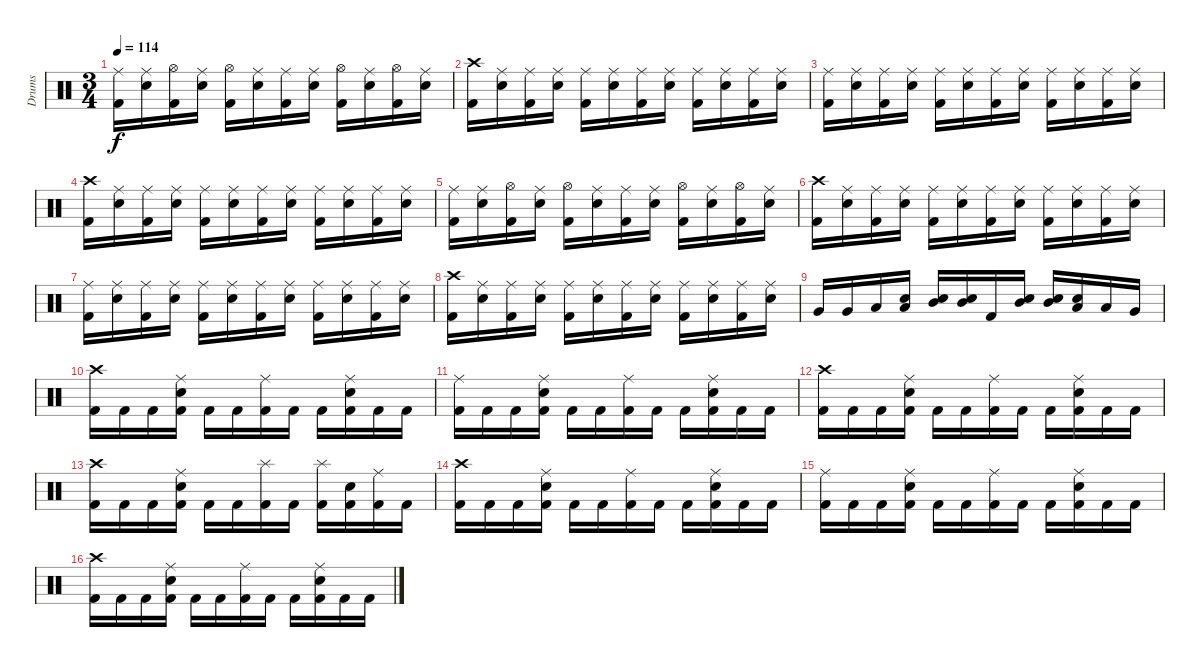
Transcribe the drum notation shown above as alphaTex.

\track ("Drums" "Drums") {instrument percussion}
\staff {score}
\articulation defaults
\ts (3 4)
\tempo 114
\clef neutral
\ks c
("Ride (middle)" "Kick (hit) 2").16{dy f} ("Ride (middle)" "Snare (hit) 2").16 ("Hi-Hat (open)" "Kick (hit) 2").16 ("Ride (middle)" "Snare (hit) 2").16 ("Hi-Hat (open)" "Kick (hit) 2").16 ("Ride (middle)" "Snare (hit) 2").16 ("Ride (middle)" "Kick (hit) 2").16 ("Ride (middle)" "Snare (hit) 2").16 ("Hi-Hat (open)" "Kick (hit) 2").16 ("Ride (middle)" "Snare (hit) 2").16 ("Hi-Hat (open)" "Kick (hit) 2").16 ("Ride (middle)" "Snare (hit) 2").16 |
("Crash high (hit)" "Kick (hit) 2").16 ("Ride (middle)" "Snare (hit) 2").16 ("Ride (middle)" "Kick (hit) 2").16 ("Ride (middle)" "Snare (hit) 2").16 ("Ride (middle)" "Kick (hit) 2").16 ("Ride (middle)" "Snare (hit) 2").16 ("Ride (middle)" "Kick (hit) 2").16 ("Ride (middle)" "Snare (hit) 2").16 ("Ride (middle)" "Kick (hit) 2").16 ("Ride (middle)" "Snare (hit) 2").16 ("Ride (middle)" "Kick (hit) 2").16 ("Ride (middle)" "Snare (hit) 2").16 |
("Ride (middle)" "Kick (hit) 2").16 ("Ride (middle)" "Snare (hit) 2").16 ("Ride (middle)" "Kick (hit) 2").16 ("Ride (middle)" "Snare (hit) 2").16 ("Ride (middle)" "Kick (hit) 2").16 ("Ride (middle)" "Snare (hit) 2").16 ("Ride (middle)" "Kick (hit) 2").16 ("Ride (middle)" "Snare (hit) 2").16 ("Ride (middle)" "Kick (hit) 2").16 ("Ride (middle)" "Snare (hit) 2").16 ("Ride (middle)" "Kick (hit) 2").16 ("Ride (middle)" "Snare (hit) 2").16 |
("Crash high (hit)" "Kick (hit) 2").16 ("Ride (middle)" "Snare (hit) 2").16 ("Ride (middle)" "Kick (hit) 2").16 ("Ride (middle)" "Snare (hit) 2").16 ("Ride (middle)" "Kick (hit) 2").16 ("Ride (middle)" "Snare (hit) 2").16 ("Ride (middle)" "Kick (hit) 2").16 ("Ride (middle)" "Snare (hit) 2").16 ("Ride (middle)" "Kick (hit) 2").16 ("Ride (middle)" "Snare (hit) 2").16 ("Ride (middle)" "Kick (hit) 2").16 ("Ride (middle)" "Snare (hit) 2").16 |
("Ride (middle)" "Kick (hit) 2").16 ("Ride (middle)" "Snare (hit) 2").16 ("Hi-Hat (open)" "Kick (hit) 2").16 ("Ride (middle)" "Snare (hit) 2").16 ("Hi-Hat (open)" "Kick (hit) 2").16 ("Ride (middle)" "Snare (hit) 2").16 ("Ride (middle)" "Kick (hit) 2").16 ("Ride (middle)" "Snare (hit) 2").16 ("Hi-Hat (open)" "Kick (hit) 2").16 ("Ride (middle)" "Snare (hit) 2").16 ("Hi-Hat (open)" "Kick (hit) 2").16 ("Ride (middle)" "Snare (hit) 2").16 |
("Crash high (hit)" "Kick (hit) 2").16 ("Ride (middle)" "Snare (hit) 2").16 ("Ride (middle)" "Kick (hit) 2").16 ("Ride (middle)" "Snare (hit) 2").16 ("Ride (middle)" "Kick (hit) 2").16 ("Ride (middle)" "Snare (hit) 2").16 ("Ride (middle)" "Kick (hit) 2").16 ("Ride (middle)" "Snare (hit) 2").16 ("Ride (middle)" "Kick (hit) 2").16 ("Ride (middle)" "Snare (hit) 2").16 ("Ride (middle)" "Kick (hit) 2").16 ("Ride (middle)" "Snare (hit) 2").16 |
("Ride (middle)" "Kick (hit) 2").16 ("Ride (middle)" "Snare (hit) 2").16 ("Ride (middle)" "Kick (hit) 2").16 ("Ride (middle)" "Snare (hit) 2").16 ("Ride (middle)" "Kick (hit) 2").16 ("Ride (middle)" "Snare (hit) 2").16 ("Ride (middle)" "Kick (hit) 2").16 ("Ride (middle)" "Snare (hit) 2").16 ("Ride (middle)" "Kick (hit) 2").16 ("Ride (middle)" "Snare (hit) 2").16 ("Ride (middle)" "Kick (hit) 2").16 ("Ride (middle)" "Snare (hit) 2").16 |
("Crash high (hit)" "Kick (hit) 2").16 ("Ride (middle)" "Snare (hit) 2").16 ("Ride (middle)" "Kick (hit) 2").16 ("Ride (middle)" "Snare (hit) 2").16 ("Ride (middle)" "Kick (hit) 2").16 ("Ride (middle)" "Snare (hit) 2").16 ("Ride (middle)" "Kick (hit) 2").16 ("Ride (middle)" "Snare (hit) 2").16 ("Ride (middle)" "Kick (hit) 2").16 ("Ride (middle)" "Snare (hit) 2").16 ("Ride (middle)" "Kick (hit) 2").16 ("Ride (middle)" "Snare (hit) 2").16 |
"Very Low Tom (hit)".16 "Very Low Tom (hit)".16 "Low Tom (hit)".16 ("Low Tom (hit)" "Snare (hit) 2").16 ("Mid Tom (hit)" "Snare (hit) 2").16 ("Mid Tom (hit)" "Snare (hit) 2").16 "Kick (hit) 2".16 ("Mid Tom (hit)" "Snare (hit) 2").16 ("Mid Tom (hit)" "Snare (hit) 2").16 ("Low Tom (hit)" "Snare (hit) 2").16 "Low Tom (hit)".16 "Very Low Tom (hit)".16 |
("Crash high (hit)" "Kick (hit) 2").16 "Kick (hit) 2".16 "Kick (hit) 2".16 ("Ride (middle)" "Snare (hit) 2" "Kick (hit) 2").16 "Kick (hit) 2".16 "Kick (hit) 2".16 ("Ride (middle)" "Kick (hit) 2").16 "Kick (hit) 2".16 "Kick (hit) 2".16 ("Ride (middle)" "Snare (hit) 2" "Kick (hit) 2").16 "Kick (hit) 2".16 "Kick (hit) 2".16 |
("Ride (middle)" "Kick (hit) 2").16 "Kick (hit) 2".16 "Kick (hit) 2".16 ("Ride (middle)" "Snare (hit) 2" "Kick (hit) 2").16 "Kick (hit) 2".16 "Kick (hit) 2".16 ("Ride (middle)" "Kick (hit) 2").16 "Kick (hit) 2".16 "Kick (hit) 2".16 ("Ride (middle)" "Snare (hit) 2" "Kick (hit) 2").16 "Kick (hit) 2".16 "Kick (hit) 2".16 |
("Crash high (hit)" "Kick (hit) 2").16 "Kick (hit) 2".16 "Kick (hit) 2".16 ("Ride (middle)" "Snare (hit) 2" "Kick (hit) 2").16 "Kick (hit) 2".16 "Kick (hit) 2".16 ("Ride (middle)" "Kick (hit) 2").16 "Kick (hit) 2".16 "Kick (hit) 2".16 ("Ride (middle)" "Snare (hit) 2" "Kick (hit) 2").16 "Kick (hit) 2".16 "Kick (hit) 2".16 |
("Crash high (hit)" "Kick (hit) 2").16 "Kick (hit) 2".16 "Kick (hit) 2".16 ("Ride (middle)" "Snare (hit) 2" "Kick (hit) 2").16 "Kick (hit) 2".16 "Kick (hit) 2".16 ("Splash (hit)" "Kick (hit) 2").16 "Kick (hit) 2".16 ("Splash (hit)" "Kick (hit) 2").16 ("Snare (hit) 2" "Kick (hit) 2").16 ("Ride (middle)" "Kick (hit) 2").16 "Kick (hit) 2".16 |
("Crash high (hit)" "Kick (hit) 2").16 "Kick (hit) 2".16 "Kick (hit) 2".16 ("Ride (middle)" "Snare (hit) 2" "Kick (hit) 2").16 "Kick (hit) 2".16 "Kick (hit) 2".16 ("Ride (middle)" "Kick (hit) 2").16 "Kick (hit) 2".16 "Kick (hit) 2".16 ("Ride (middle)" "Snare (hit) 2" "Kick (hit) 2").16 "Kick (hit) 2".16 "Kick (hit) 2".16 |
("Ride (middle)" "Kick (hit) 2").16 "Kick (hit) 2".16 "Kick (hit) 2".16 ("Ride (middle)" "Snare (hit) 2" "Kick (hit) 2").16 "Kick (hit) 2".16 "Kick (hit) 2".16 ("Ride (middle)" "Kick (hit) 2").16 "Kick (hit) 2".16 "Kick (hit) 2".16 ("Ride (middle)" "Snare (hit) 2" "Kick (hit) 2").16 "Kick (hit) 2".16 "Kick (hit) 2".16 |
("Crash high (hit)" "Kick (hit) 2").16 "Kick (hit) 2".16 "Kick (hit) 2".16 ("Ride (middle)" "Snare (hit) 2" "Kick (hit) 2").16 "Kick (hit) 2".16 "Kick (hit) 2".16 ("Ride (middle)" "Kick (hit) 2").16 "Kick (hit) 2".16 "Kick (hit) 2".16 ("Ride (middle)" "Snare (hit) 2" "Kick (hit) 2").16 "Kick (hit) 2".16 "Kick (hit) 2".16
